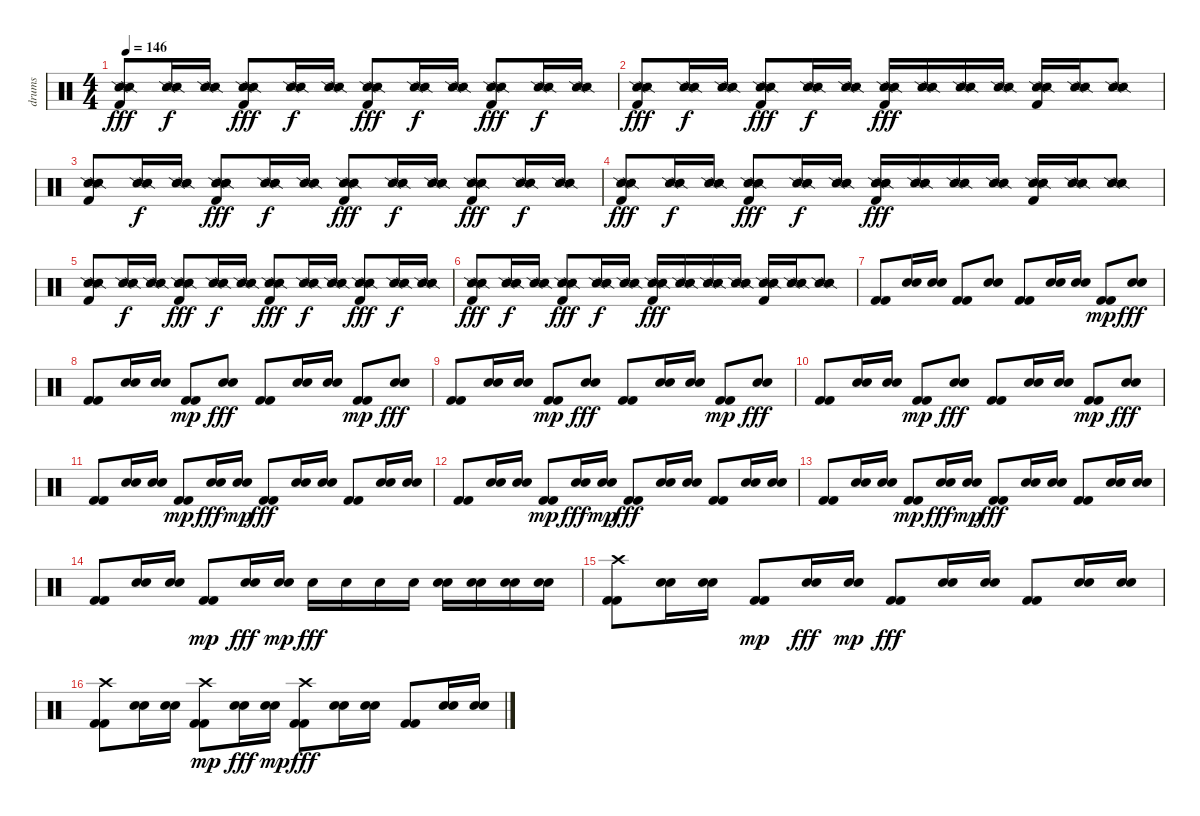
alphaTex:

\track ("drums" "drums") {instrument percussion}
\staff {score}
\articulation defaults
\ts (4 4)
\tempo 146
\clef neutral
\ks c
("Snare (side stick) 2" "Snare (side stick) 2" "Kick (hit) 2").8{dy fff} ("Snare (side stick) 2" "Snare (side stick) 2").16{dy f} ("Snare (side stick) 2" "Snare (side stick) 2").16 ("Snare (side stick) 2" "Snare (side stick) 2" "Kick (hit) 2").8{dy fff} ("Snare (side stick) 2" "Snare (side stick) 2").16{dy f} ("Snare (side stick) 2" "Snare (side stick) 2").16 ("Snare (side stick) 2" "Snare (side stick) 2" "Kick (hit) 2").8{dy fff} ("Snare (side stick) 2" "Snare (side stick) 2").16{dy f} ("Snare (side stick) 2" "Snare (side stick) 2").16 ("Snare (side stick) 2" "Snare (side stick) 2" "Kick (hit) 2").8{dy fff} ("Snare (side stick) 2" "Snare (side stick) 2").16{dy f} ("Snare (side stick) 2" "Snare (side stick) 2").16 |
("Snare (side stick) 2" "Snare (side stick) 2" "Kick (hit) 2").8{dy fff} ("Snare (side stick) 2" "Snare (side stick) 2").16{dy f} ("Snare (side stick) 2" "Snare (side stick) 2").16 ("Snare (side stick) 2" "Snare (side stick) 2" "Kick (hit) 2").8{dy fff} ("Snare (side stick) 2" "Snare (side stick) 2").16{dy f} ("Snare (side stick) 2" "Snare (side stick) 2").16 ("Snare (side stick) 2" "Snare (side stick) 2" "Kick (hit) 2").16{dy fff} ("Snare (side stick) 2" "Snare (side stick) 2").16 ("Snare (side stick) 2" "Snare (side stick) 2").16 ("Snare (side stick) 2" "Snare (side stick) 2").16 ("Snare (side stick) 2" "Snare (side stick) 2" "Kick (hit) 2").16 ("Snare (side stick) 2" "Snare (side stick) 2").16 ("Snare (side stick) 2" "Snare (side stick) 2").8 |
("Snare (side stick) 2" "Snare (side stick) 2" "Kick (hit) 2").8 ("Snare (side stick) 2" "Snare (side stick) 2").16{dy f} ("Snare (side stick) 2" "Snare (side stick) 2").16 ("Snare (side stick) 2" "Snare (side stick) 2" "Kick (hit) 2").8{dy fff} ("Snare (side stick) 2" "Snare (side stick) 2").16{dy f} ("Snare (side stick) 2" "Snare (side stick) 2").16 ("Snare (side stick) 2" "Snare (side stick) 2" "Kick (hit) 2").8{dy fff} ("Snare (side stick) 2" "Snare (side stick) 2").16{dy f} ("Snare (side stick) 2" "Snare (side stick) 2").16 ("Snare (side stick) 2" "Snare (side stick) 2" "Kick (hit) 2").8{dy fff} ("Snare (side stick) 2" "Snare (side stick) 2").16{dy f} ("Snare (side stick) 2" "Snare (side stick) 2").16 |
("Snare (side stick) 2" "Snare (side stick) 2" "Kick (hit) 2").8{dy fff} ("Snare (side stick) 2" "Snare (side stick) 2").16{dy f} ("Snare (side stick) 2" "Snare (side stick) 2").16 ("Snare (side stick) 2" "Snare (side stick) 2" "Kick (hit) 2").8{dy fff} ("Snare (side stick) 2" "Snare (side stick) 2").16{dy f} ("Snare (side stick) 2" "Snare (side stick) 2").16 ("Snare (side stick) 2" "Snare (side stick) 2" "Kick (hit) 2").16{dy fff} ("Snare (side stick) 2" "Snare (side stick) 2").16 ("Snare (side stick) 2" "Snare (side stick) 2").16 ("Snare (side stick) 2" "Snare (side stick) 2").16 ("Snare (side stick) 2" "Snare (side stick) 2" "Kick (hit) 2").16 ("Snare (side stick) 2" "Snare (side stick) 2").16 ("Snare (side stick) 2" "Snare (side stick) 2").8 |
("Snare (side stick) 2" "Snare (side stick) 2" "Kick (hit) 2").8 ("Snare (side stick) 2" "Snare (side stick) 2").16{dy f} ("Snare (side stick) 2" "Snare (side stick) 2").16 ("Snare (side stick) 2" "Snare (side stick) 2" "Kick (hit) 2").8{dy fff} ("Snare (side stick) 2" "Snare (side stick) 2").16{dy f} ("Snare (side stick) 2" "Snare (side stick) 2").16 ("Snare (side stick) 2" "Snare (side stick) 2" "Kick (hit) 2").8{dy fff} ("Snare (side stick) 2" "Snare (side stick) 2").16{dy f} ("Snare (side stick) 2" "Snare (side stick) 2").16 ("Snare (side stick) 2" "Snare (side stick) 2" "Kick (hit) 2").8{dy fff} ("Snare (side stick) 2" "Snare (side stick) 2").16{dy f} ("Snare (side stick) 2" "Snare (side stick) 2").16 |
("Snare (side stick) 2" "Snare (side stick) 2" "Kick (hit) 2").8{dy fff} ("Snare (side stick) 2" "Snare (side stick) 2").16{dy f} ("Snare (side stick) 2" "Snare (side stick) 2").16 ("Snare (side stick) 2" "Snare (side stick) 2" "Kick (hit) 2").8{dy fff} ("Snare (side stick) 2" "Snare (side stick) 2").16{dy f} ("Snare (side stick) 2" "Snare (side stick) 2").16 ("Snare (side stick) 2" "Snare (side stick) 2" "Kick (hit) 2").16{dy fff} ("Snare (side stick) 2" "Snare (side stick) 2").16 ("Snare (side stick) 2" "Snare (side stick) 2").16 ("Snare (side stick) 2" "Snare (side stick) 2").16 ("Snare (side stick) 2" "Snare (side stick) 2" "Kick (hit) 2").16 ("Snare (side stick) 2" "Snare (side stick) 2").16 ("Snare (side stick) 2" "Snare (side stick) 2").8 |
("Kick (hit) 2" "Kick (hit) 2").8{volume 0} ("Electric Snare (hit)" "Electric Snare (hit)").16{volume 13} ("Electric Snare (hit)" "Electric Snare (hit)").16 ("Kick (hit) 2" "Kick (hit) 2").8 ("Electric Snare (hit)" "Electric Snare (hit)").8 ("Kick (hit) 2" "Kick (hit) 2").8 ("Electric Snare (hit)" "Electric Snare (hit)").16 ("Electric Snare (hit)" "Electric Snare (hit)").16 ("Kick (hit) 2" "Kick (hit) 2").8{dy mp} ("Electric Snare (hit)" "Electric Snare (hit)").8{dy fff} |
("Kick (hit) 2" "Kick (hit) 2").8 ("Electric Snare (hit)" "Electric Snare (hit)").16 ("Electric Snare (hit)" "Electric Snare (hit)").16 ("Kick (hit) 2" "Kick (hit) 2").8{dy mp} ("Electric Snare (hit)" "Electric Snare (hit)").8{dy fff} ("Kick (hit) 2" "Kick (hit) 2").8 ("Electric Snare (hit)" "Electric Snare (hit)").16 ("Electric Snare (hit)" "Electric Snare (hit)").16 ("Kick (hit) 2" "Kick (hit) 2").8{dy mp} ("Electric Snare (hit)" "Electric Snare (hit)").8{dy fff} |
("Kick (hit) 2" "Kick (hit) 2").8 ("Electric Snare (hit)" "Electric Snare (hit)").16 ("Electric Snare (hit)" "Electric Snare (hit)").16 ("Kick (hit) 2" "Kick (hit) 2").8{dy mp} ("Electric Snare (hit)" "Electric Snare (hit)").8{dy fff} ("Kick (hit) 2" "Kick (hit) 2").8 ("Electric Snare (hit)" "Electric Snare (hit)").16 ("Electric Snare (hit)" "Electric Snare (hit)").16 ("Kick (hit) 2" "Kick (hit) 2").8{dy mp} ("Electric Snare (hit)" "Electric Snare (hit)").8{dy fff} |
("Kick (hit) 2" "Kick (hit) 2").8 ("Electric Snare (hit)" "Electric Snare (hit)").16 ("Electric Snare (hit)" "Electric Snare (hit)").16 ("Kick (hit) 2" "Kick (hit) 2").8{dy mp} ("Electric Snare (hit)" "Electric Snare (hit)").8{dy fff} ("Kick (hit) 2" "Kick (hit) 2").8 ("Electric Snare (hit)" "Electric Snare (hit)").16 ("Electric Snare (hit)" "Electric Snare (hit)").16 ("Kick (hit) 2" "Kick (hit) 2").8{dy mp} ("Electric Snare (hit)" "Electric Snare (hit)").8{dy fff} |
("Kick (hit) 2" "Kick (hit) 2").8 ("Electric Snare (hit)" "Electric Snare (hit)").16 ("Electric Snare (hit)" "Electric Snare (hit)").16 ("Kick (hit) 2" "Kick (hit) 2").8{dy mp} ("Electric Snare (hit)" "Electric Snare (hit)").16{dy fff} ("Electric Snare (hit)" "Electric Snare (hit)").16{dy mp} ("Kick (hit) 2" "Kick (hit) 2").8{dy fff} ("Electric Snare (hit)" "Electric Snare (hit)").16 ("Electric Snare (hit)" "Electric Snare (hit)").16 ("Kick (hit) 2" "Kick (hit) 2").8 ("Electric Snare (hit)" "Electric Snare (hit)").16 ("Electric Snare (hit)" "Electric Snare (hit)").16 |
("Kick (hit) 2" "Kick (hit) 2").8 ("Electric Snare (hit)" "Electric Snare (hit)").16 ("Electric Snare (hit)" "Electric Snare (hit)").16 ("Kick (hit) 2" "Kick (hit) 2").8{dy mp} ("Electric Snare (hit)" "Electric Snare (hit)").16{dy fff} ("Electric Snare (hit)" "Electric Snare (hit)").16{dy mp} ("Kick (hit) 2" "Kick (hit) 2").8{dy fff} ("Electric Snare (hit)" "Electric Snare (hit)").16 ("Electric Snare (hit)" "Electric Snare (hit)").16 ("Kick (hit) 2" "Kick (hit) 2").8 ("Electric Snare (hit)" "Electric Snare (hit)").16 ("Electric Snare (hit)" "Electric Snare (hit)").16 |
("Kick (hit) 2" "Kick (hit) 2").8 ("Electric Snare (hit)" "Electric Snare (hit)").16 ("Electric Snare (hit)" "Electric Snare (hit)").16 ("Kick (hit) 2" "Kick (hit) 2").8{dy mp} ("Electric Snare (hit)" "Electric Snare (hit)").16{dy fff} ("Electric Snare (hit)" "Electric Snare (hit)").16{dy mp} ("Kick (hit) 2" "Kick (hit) 2").8{dy fff} ("Electric Snare (hit)" "Electric Snare (hit)").16 ("Electric Snare (hit)" "Electric Snare (hit)").16 ("Kick (hit) 2" "Kick (hit) 2").8 ("Electric Snare (hit)" "Electric Snare (hit)").16 ("Electric Snare (hit)" "Electric Snare (hit)").16 |
("Kick (hit) 2" "Kick (hit) 2").8 ("Electric Snare (hit)" "Electric Snare (hit)").16 ("Electric Snare (hit)" "Electric Snare (hit)").16 ("Kick (hit) 2" "Kick (hit) 2").8{dy mp} ("Electric Snare (hit)" "Electric Snare (hit)").16{dy fff} ("Electric Snare (hit)" "Electric Snare (hit)").16{dy mp} "Electric Snare (hit)".16{dy fff} "Electric Snare (hit)".16 "Electric Snare (hit)".16 "Electric Snare (hit)".16 ("Electric Snare (hit)" "Electric Snare (hit)").16 ("Electric Snare (hit)" "Electric Snare (hit)").16 ("Electric Snare (hit)" "Electric Snare (hit)").16 ("Electric Snare (hit)" "Electric Snare (hit)").16 |
("Crash high (hit)" "Kick (hit) 2" "Kick (hit) 2").8 ("Electric Snare (hit)" "Electric Snare (hit)").16 ("Electric Snare (hit)" "Electric Snare (hit)").16 ("Kick (hit) 2" "Kick (hit) 2").8{dy mp} ("Electric Snare (hit)" "Electric Snare (hit)").16{dy fff} ("Electric Snare (hit)" "Electric Snare (hit)").16{dy mp} ("Kick (hit) 2" "Kick (hit) 2").8{dy fff} ("Electric Snare (hit)" "Electric Snare (hit)").16 ("Electric Snare (hit)" "Electric Snare (hit)").16 ("Kick (hit) 2" "Kick (hit) 2").8 ("Electric Snare (hit)" "Electric Snare (hit)").16 ("Electric Snare (hit)" "Electric Snare (hit)").16 |
("Crash high (hit)" "Kick (hit) 2" "Kick (hit) 2").8 ("Electric Snare (hit)" "Electric Snare (hit)").16 ("Electric Snare (hit)" "Electric Snare (hit)").16 ("Crash high (hit)" "Kick (hit) 2" "Kick (hit) 2").8{dy mp} ("Electric Snare (hit)" "Electric Snare (hit)").16{dy fff} ("Electric Snare (hit)" "Electric Snare (hit)").16{dy mp} ("Crash high (hit)" "Kick (hit) 2" "Kick (hit) 2").8{dy fff} ("Electric Snare (hit)" "Electric Snare (hit)").16 ("Electric Snare (hit)" "Electric Snare (hit)").16 ("Kick (hit) 2" "Kick (hit) 2").8 ("Electric Snare (hit)" "Electric Snare (hit)").16 ("Electric Snare (hit)" "Electric Snare (hit)").16
